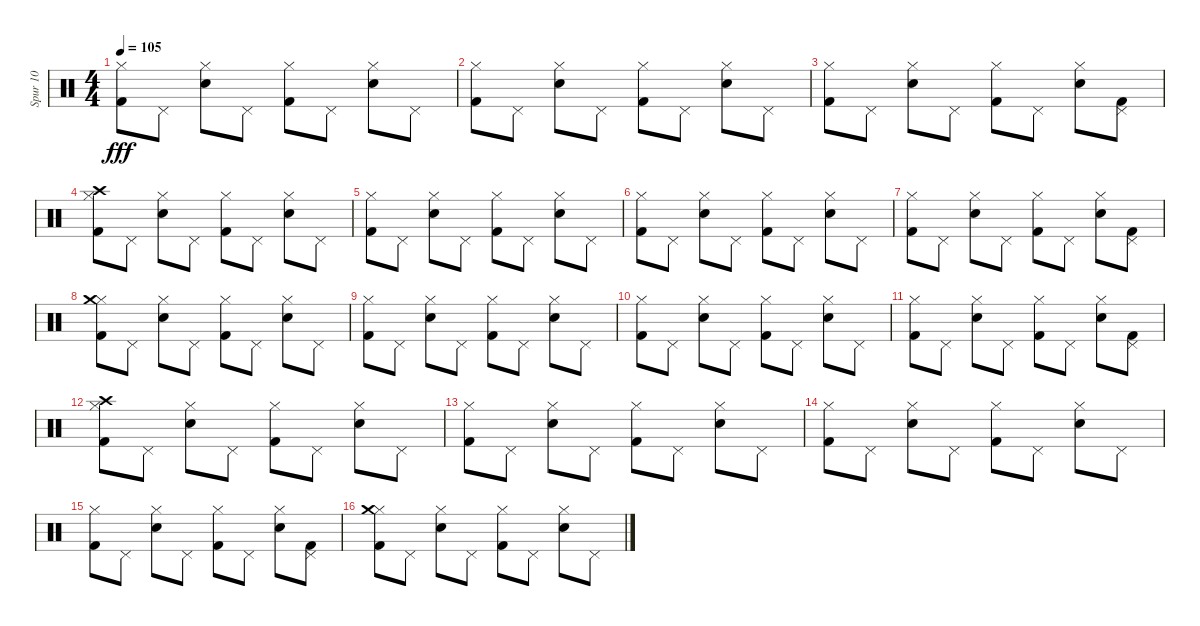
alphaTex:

\track ("Spur 10" "Spur 10") {instrument percussion}
\staff {score}
\articulation defaults
\ts (4 4)
\tempo 105
\clef neutral
\ks c
("Kick (hit) 2" "Hi-Hat (closed)").8{dy fff} "Pedal Hi-Hat (hit)".8 ("Electric Snare (hit)" "Hi-Hat (closed)").8 "Pedal Hi-Hat (hit)".8 ("Hi-Hat (closed)" "Kick (hit) 2").8 "Pedal Hi-Hat (hit)".8 ("Electric Snare (hit)" "Hi-Hat (closed)").8 "Pedal Hi-Hat (hit)".8 |
("Kick (hit) 2" "Hi-Hat (closed)").8 "Pedal Hi-Hat (hit)".8 ("Electric Snare (hit)" "Hi-Hat (closed)").8 "Pedal Hi-Hat (hit)".8 ("Kick (hit) 2" "Hi-Hat (closed)").8 "Pedal Hi-Hat (hit)".8 ("Electric Snare (hit)" "Hi-Hat (closed)").8 "Pedal Hi-Hat (hit)".8 |
("Kick (hit) 2" "Hi-Hat (closed)").8 "Pedal Hi-Hat (hit)".8 ("Electric Snare (hit)" "Hi-Hat (closed)").8 "Pedal Hi-Hat (hit)".8 ("Hi-Hat (closed)" "Kick (hit) 2").8 "Pedal Hi-Hat (hit)".8 ("Electric Snare (hit)" "Hi-Hat (closed)").8 ("Pedal Hi-Hat (hit)" "Kick (hit) 2").8 |
("Hi-Hat (closed)" "Crash high (hit)" "Kick (hit) 2").8 "Pedal Hi-Hat (hit)".8 ("Hi-Hat (closed)" "Electric Snare (hit)").8 "Pedal Hi-Hat (hit)".8 ("Hi-Hat (closed)" "Kick (hit) 2").8 "Pedal Hi-Hat (hit)".8 ("Electric Snare (hit)" "Hi-Hat (closed)").8 "Pedal Hi-Hat (hit)".8 |
("Kick (hit) 2" "Hi-Hat (closed)").8 "Pedal Hi-Hat (hit)".8 ("Electric Snare (hit)" "Hi-Hat (closed)").8 "Pedal Hi-Hat (hit)".8 ("Hi-Hat (closed)" "Kick (hit) 2").8 "Pedal Hi-Hat (hit)".8 ("Electric Snare (hit)" "Hi-Hat (closed)").8 "Pedal Hi-Hat (hit)".8 |
("Kick (hit) 2" "Hi-Hat (closed)").8 "Pedal Hi-Hat (hit)".8 ("Electric Snare (hit)" "Hi-Hat (closed)").8 "Pedal Hi-Hat (hit)".8 ("Kick (hit) 2" "Hi-Hat (closed)").8 "Pedal Hi-Hat (hit)".8 ("Electric Snare (hit)" "Hi-Hat (closed)").8 "Pedal Hi-Hat (hit)".8 |
("Kick (hit) 2" "Hi-Hat (closed)").8 "Pedal Hi-Hat (hit)".8 ("Electric Snare (hit)" "Hi-Hat (closed)").8 "Pedal Hi-Hat (hit)".8 ("Hi-Hat (closed)" "Kick (hit) 2").8 "Pedal Hi-Hat (hit)".8 ("Electric Snare (hit)" "Hi-Hat (closed)").8 ("Pedal Hi-Hat (hit)" "Kick (hit) 2").8 |
("Hi-Hat (closed)" "Crash medium (hit)" "Kick (hit) 2").8 "Pedal Hi-Hat (hit)".8 ("Hi-Hat (closed)" "Electric Snare (hit)").8 "Pedal Hi-Hat (hit)".8 ("Hi-Hat (closed)" "Kick (hit) 2").8 "Pedal Hi-Hat (hit)".8 ("Electric Snare (hit)" "Hi-Hat (closed)").8 "Pedal Hi-Hat (hit)".8 |
("Kick (hit) 2" "Hi-Hat (closed)").8 "Pedal Hi-Hat (hit)".8 ("Electric Snare (hit)" "Hi-Hat (closed)").8 "Pedal Hi-Hat (hit)".8 ("Hi-Hat (closed)" "Kick (hit) 2").8 "Pedal Hi-Hat (hit)".8 ("Electric Snare (hit)" "Hi-Hat (closed)").8 "Pedal Hi-Hat (hit)".8 |
("Kick (hit) 2" "Hi-Hat (closed)").8 "Pedal Hi-Hat (hit)".8 ("Electric Snare (hit)" "Hi-Hat (closed)").8 "Pedal Hi-Hat (hit)".8 ("Kick (hit) 2" "Hi-Hat (closed)").8 "Pedal Hi-Hat (hit)".8 ("Electric Snare (hit)" "Hi-Hat (closed)").8 "Pedal Hi-Hat (hit)".8 |
("Kick (hit) 2" "Hi-Hat (closed)").8 "Pedal Hi-Hat (hit)".8 ("Electric Snare (hit)" "Hi-Hat (closed)").8 "Pedal Hi-Hat (hit)".8 ("Hi-Hat (closed)" "Kick (hit) 2").8 "Pedal Hi-Hat (hit)".8 ("Electric Snare (hit)" "Hi-Hat (closed)").8 ("Pedal Hi-Hat (hit)" "Kick (hit) 2").8 |
("Hi-Hat (closed)" "Crash high (hit)" "Kick (hit) 2").8 "Pedal Hi-Hat (hit)".8 ("Hi-Hat (closed)" "Electric Snare (hit)").8 "Pedal Hi-Hat (hit)".8 ("Hi-Hat (closed)" "Kick (hit) 2").8 "Pedal Hi-Hat (hit)".8 ("Electric Snare (hit)" "Hi-Hat (closed)").8 "Pedal Hi-Hat (hit)".8 |
("Kick (hit) 2" "Hi-Hat (closed)").8 "Pedal Hi-Hat (hit)".8 ("Electric Snare (hit)" "Hi-Hat (closed)").8 "Pedal Hi-Hat (hit)".8 ("Hi-Hat (closed)" "Kick (hit) 2").8 "Pedal Hi-Hat (hit)".8 ("Electric Snare (hit)" "Hi-Hat (closed)").8 "Pedal Hi-Hat (hit)".8 |
("Kick (hit) 2" "Hi-Hat (closed)").8 "Pedal Hi-Hat (hit)".8 ("Electric Snare (hit)" "Hi-Hat (closed)").8 "Pedal Hi-Hat (hit)".8 ("Kick (hit) 2" "Hi-Hat (closed)").8 "Pedal Hi-Hat (hit)".8 ("Electric Snare (hit)" "Hi-Hat (closed)").8 "Pedal Hi-Hat (hit)".8 |
("Kick (hit) 2" "Hi-Hat (closed)").8 "Pedal Hi-Hat (hit)".8 ("Electric Snare (hit)" "Hi-Hat (closed)").8 "Pedal Hi-Hat (hit)".8 ("Hi-Hat (closed)" "Kick (hit) 2").8 "Pedal Hi-Hat (hit)".8 ("Electric Snare (hit)" "Hi-Hat (closed)").8 ("Pedal Hi-Hat (hit)" "Kick (hit) 2").8 |
("Hi-Hat (closed)" "Crash medium (hit)" "Kick (hit) 2").8 "Pedal Hi-Hat (hit)".8 ("Hi-Hat (closed)" "Electric Snare (hit)").8 "Pedal Hi-Hat (hit)".8 ("Hi-Hat (closed)" "Kick (hit) 2").8 "Pedal Hi-Hat (hit)".8 ("Electric Snare (hit)" "Hi-Hat (closed)").8 "Pedal Hi-Hat (hit)".8
